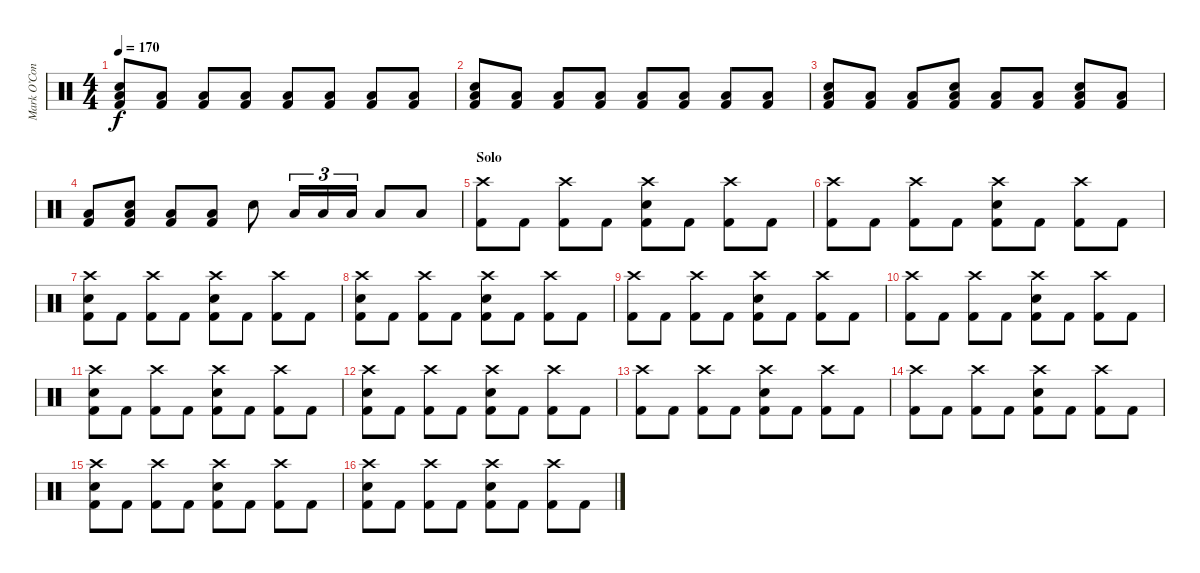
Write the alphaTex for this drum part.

\track ("Mark O’Connell - Drums" "Mark O’Con") {instrument percussion}
\staff {score}
\articulation defaults
\ts (4 4)
\tempo 170
\clef neutral
\ks c
("Snare (hit) 2" "Low Tom (hit)" "Kick (hit) 2").8{dy f volume 16} ("Low Tom (hit)" "Kick (hit) 2").8{volume 7} ("Low Tom (hit)" "Kick (hit) 2").8{volume 16} ("Low Tom (hit)" "Kick (hit) 2").8 ("Low Tom (hit)" "Kick (hit) 2").8 ("Low Tom (hit)" "Kick (hit) 2").8 ("Low Tom (hit)" "Kick (hit) 2").8 ("Low Tom (hit)" "Kick (hit) 2").8 |
("Snare (hit) 2" "Low Tom (hit)" "Kick (hit) 2").8{volume 16} ("Low Tom (hit)" "Kick (hit) 2").8{volume 7} ("Low Tom (hit)" "Kick (hit) 2").8{volume 16} ("Low Tom (hit)" "Kick (hit) 2").8 ("Low Tom (hit)" "Kick (hit) 2").8 ("Low Tom (hit)" "Kick (hit) 2").8 ("Low Tom (hit)" "Kick (hit) 2").8 ("Low Tom (hit)" "Kick (hit) 2").8 |
("Snare (hit) 2" "Low Tom (hit)" "Kick (hit) 2").8{volume 16} ("Low Tom (hit)" "Kick (hit) 2").8{volume 7} ("Low Tom (hit)" "Kick (hit) 2").8 ("Snare (hit) 2" "Low Tom (hit)" "Kick (hit) 2").8{volume 16} ("Low Tom (hit)" "Kick (hit) 2").8{volume 7} ("Low Tom (hit)" "Kick (hit) 2").8 ("Snare (hit) 2" "Low Tom (hit)" "Kick (hit) 2").8{volume 16} ("Low Tom (hit)" "Kick (hit) 2").8{volume 7} |
("Low Tom (hit)" "Kick (hit) 2").8 ("Snare (hit) 2" "Low Tom (hit)" "Kick (hit) 2").8{volume 16} ("Low Tom (hit)" "Kick (hit) 2").8{volume 7} ("Low Tom (hit)" "Kick (hit) 2").8 "Snare (hit) 2".8{volume 16} "Low Tom (hit)".16{tu (3 2)} "Low Tom (hit)".16{tu (3 2)} "Low Tom (hit)".16{tu (3 2)} "Low Tom (hit)".8 "Low Tom (hit)".8 |
\section ("" "Solo")
("Crash high (hit)" "Kick (hit) 2").8 "Kick (hit) 2".8 ("Crash high (hit)" "Kick (hit) 2").8 "Kick (hit) 2".8 ("Crash high (hit)" "Snare (hit) 2" "Kick (hit) 2").8 "Kick (hit) 2".8 ("Crash high (hit)" "Kick (hit) 2").8 "Kick (hit) 2".8 |
("Crash high (hit)" "Kick (hit) 2").8 "Kick (hit) 2".8 ("Crash high (hit)" "Kick (hit) 2").8 "Kick (hit) 2".8 ("Crash high (hit)" "Snare (hit) 2" "Kick (hit) 2").8 "Kick (hit) 2".8 ("Crash high (hit)" "Kick (hit) 2").8 "Kick (hit) 2".8 |
("Crash high (hit)" "Snare (hit) 2" "Kick (hit) 2").8 "Kick (hit) 2".8 ("Crash high (hit)" "Kick (hit) 2").8 "Kick (hit) 2".8 ("Crash high (hit)" "Snare (hit) 2" "Kick (hit) 2").8 "Kick (hit) 2".8 ("Crash high (hit)" "Kick (hit) 2").8 "Kick (hit) 2".8 |
("Crash high (hit)" "Snare (hit) 2" "Kick (hit) 2").8 "Kick (hit) 2".8 ("Crash high (hit)" "Kick (hit) 2").8 "Kick (hit) 2".8 ("Crash high (hit)" "Snare (hit) 2" "Kick (hit) 2").8 "Kick (hit) 2".8 ("Crash high (hit)" "Kick (hit) 2").8 "Kick (hit) 2".8 |
("Crash high (hit)" "Kick (hit) 2").8 "Kick (hit) 2".8 ("Crash high (hit)" "Kick (hit) 2").8 "Kick (hit) 2".8 ("Crash high (hit)" "Snare (hit) 2" "Kick (hit) 2").8 "Kick (hit) 2".8 ("Crash high (hit)" "Kick (hit) 2").8 "Kick (hit) 2".8 |
("Crash high (hit)" "Kick (hit) 2").8 "Kick (hit) 2".8 ("Crash high (hit)" "Kick (hit) 2").8 "Kick (hit) 2".8 ("Crash high (hit)" "Snare (hit) 2" "Kick (hit) 2").8 "Kick (hit) 2".8 ("Crash high (hit)" "Kick (hit) 2").8 "Kick (hit) 2".8 |
("Crash high (hit)" "Snare (hit) 2" "Kick (hit) 2").8 "Kick (hit) 2".8 ("Crash high (hit)" "Kick (hit) 2").8 "Kick (hit) 2".8 ("Crash high (hit)" "Snare (hit) 2" "Kick (hit) 2").8 "Kick (hit) 2".8 ("Crash high (hit)" "Kick (hit) 2").8 "Kick (hit) 2".8 |
("Crash high (hit)" "Snare (hit) 2" "Kick (hit) 2").8 "Kick (hit) 2".8 ("Crash high (hit)" "Kick (hit) 2").8 "Kick (hit) 2".8 ("Crash high (hit)" "Snare (hit) 2" "Kick (hit) 2").8 "Kick (hit) 2".8 ("Crash high (hit)" "Kick (hit) 2").8 "Kick (hit) 2".8 |
("Crash high (hit)" "Kick (hit) 2").8 "Kick (hit) 2".8 ("Crash high (hit)" "Kick (hit) 2").8 "Kick (hit) 2".8 ("Crash high (hit)" "Snare (hit) 2" "Kick (hit) 2").8 "Kick (hit) 2".8 ("Crash high (hit)" "Kick (hit) 2").8 "Kick (hit) 2".8 |
("Crash high (hit)" "Kick (hit) 2").8 "Kick (hit) 2".8 ("Crash high (hit)" "Kick (hit) 2").8 "Kick (hit) 2".8 ("Crash high (hit)" "Snare (hit) 2" "Kick (hit) 2").8 "Kick (hit) 2".8 ("Crash high (hit)" "Kick (hit) 2").8 "Kick (hit) 2".8 |
("Crash high (hit)" "Snare (hit) 2" "Kick (hit) 2").8 "Kick (hit) 2".8 ("Crash high (hit)" "Kick (hit) 2").8 "Kick (hit) 2".8 ("Crash high (hit)" "Snare (hit) 2" "Kick (hit) 2").8 "Kick (hit) 2".8 ("Crash high (hit)" "Kick (hit) 2").8 "Kick (hit) 2".8 |
("Crash high (hit)" "Snare (hit) 2" "Kick (hit) 2").8 "Kick (hit) 2".8 ("Crash high (hit)" "Kick (hit) 2").8 "Kick (hit) 2".8 ("Crash high (hit)" "Snare (hit) 2" "Kick (hit) 2").8 "Kick (hit) 2".8 ("Crash high (hit)" "Kick (hit) 2").8 "Kick (hit) 2".8
